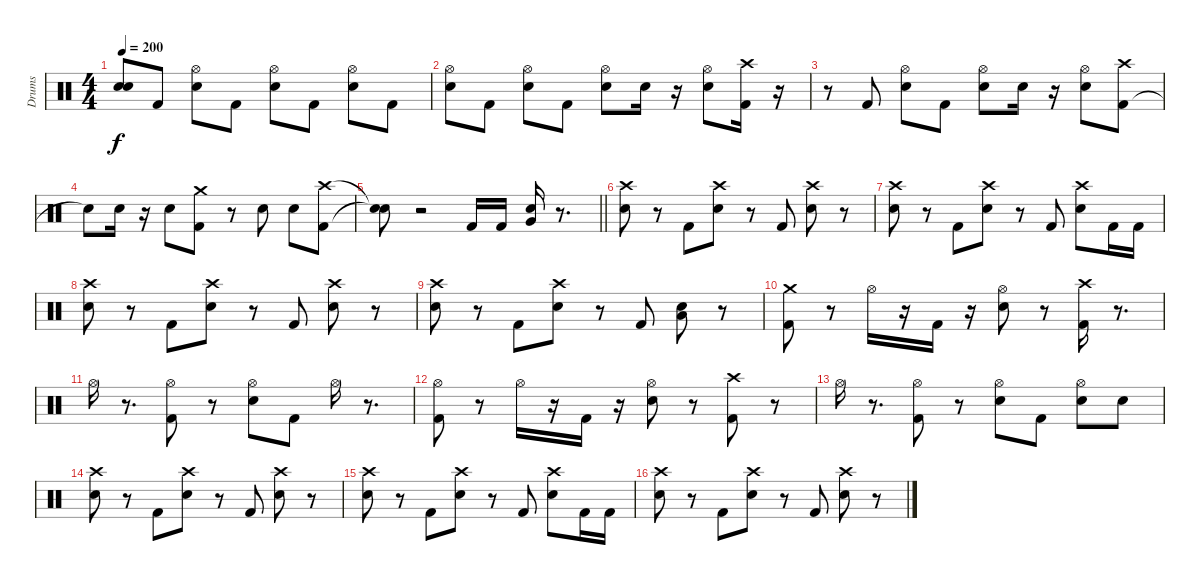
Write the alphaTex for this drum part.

\track ("Drums" "Drums") {instrument percussion}
\staff {score}
\articulation defaults
\ts (4 4)
\tempo 200
\clef neutral
\ks c
("Snare (hit)"{t} "Snare (hit)"{t}).8{dy f} "Kick (hit) 2".8 ("Snare (hit) 2" "Hi-Hat (open)").8 "Kick (hit) 2".8 ("Snare (hit) 2" "Hi-Hat (open)").8 "Kick (hit) 2".8 ("Snare (hit) 2" "Hi-Hat (open)").8 "Kick (hit) 2".8 |
("Snare (hit) 2" "Hi-Hat (open)").8 "Kick (hit) 2".8 ("Snare (hit) 2" "Hi-Hat (open)").8 "Kick (hit) 2".8 ("Snare (hit) 2" "Hi-Hat (open)").8 "Snare (hit) 2".16 r.16 ("Snare (hit) 2" "Hi-Hat (open)").8 ("Kick (hit) 2" "Crash high (hit)").16 r.16 |
r.8 "Kick (hit) 2".8 ("Snare (hit) 2" "Hi-Hat (open)").8 "Kick (hit) 2".8 ("Snare (hit) 2" "Hi-Hat (open)").8 "Snare (hit) 2".16 r.16 ("Snare (hit) 2" "Hi-Hat (open)").8 ("Kick (hit) 2" "Crash high (hit)").8 |
"Snare (hit)"{t}.8 "Snare (hit) 2".16 r.16 "Snare (hit) 2".8 ("Kick (hit) 2" "Crash medium (hit)").8 r.8 "Snare (hit) 2".8 "Snare (hit) 2".8 ("Kick (hit) 2" "Crash high (hit)").8 |
\barLineRight lightlight
("Snare (hit)"{t} "Snare (hit)"{t}).8 r.2 "Kick (hit) 2".16 "Kick (hit) 2".16 ("Snare (hit) 2" "Very Low Tom (hit)").16 r.8{d} |
\section ("" " ")
("Snare (hit) 2" "Crash high (hit)").8 r.8 "Kick (hit) 2".8 ("Snare (hit) 2" "Crash high (hit)").8 r.8 "Kick (hit) 2".8 ("Snare (hit) 2" "Crash high (hit)").8 r.8 |
("Snare (hit) 2" "Crash high (hit)").8 r.8 "Kick (hit) 2".8 ("Snare (hit) 2" "Crash high (hit)").8 r.8 "Kick (hit) 2".8 ("Snare (hit) 2" "Crash high (hit)").8 "Kick (hit) 2".16 "Kick (hit) 2".16 |
("Snare (hit) 2" "Crash high (hit)").8 r.8 "Kick (hit) 2".8 ("Snare (hit) 2" "Crash high (hit)").8 r.8 "Kick (hit) 2".8 ("Snare (hit) 2" "Crash high (hit)").8 r.8 |
("Snare (hit) 2" "Crash high (hit)").8 r.8 "Kick (hit) 2".8 ("Snare (hit) 2" "Crash high (hit)").8 r.8 "Kick (hit) 2".8 ("Snare (hit) 2" "Low Tom (hit)").8 r.8 |
("Kick (hit) 2" "Crash medium (hit)").8 r.8 "Hi-Hat (open)".16 r.16 "Kick (hit) 2".16 r.16 ("Snare (hit) 2" "Hi-Hat (open)").8 r.8 ("Kick (hit) 2" "Crash high (hit)").16 r.8{d} |
"Hi-Hat (open)".16 r.8{d} ("Kick (hit) 2" "Hi-Hat (open)").8 r.8 ("Snare (hit) 2" "Hi-Hat (open)").8 "Kick (hit) 2".8 "Hi-Hat (open)".16 r.8{d} |
("Kick (hit) 2" "Hi-Hat (open)").8 r.8 "Hi-Hat (open)".16 r.16 "Kick (hit) 2".16 r.16 ("Snare (hit) 2" "Hi-Hat (open)").8 r.8 ("Kick (hit) 2" "Crash high (hit)").8 r.8 |
"Hi-Hat (open)".16 r.8{d} ("Kick (hit) 2" "Hi-Hat (open)").8 r.8 ("Snare (hit) 2" "Hi-Hat (open)").8 "Kick (hit) 2".8 ("Snare (hit) 2" "Hi-Hat (open)").8 "Snare (hit) 2".8 |
("Snare (hit) 2" "Crash high (hit)").8 r.8 "Kick (hit) 2".8 ("Snare (hit) 2" "Crash high (hit)").8 r.8 "Kick (hit) 2".8 ("Snare (hit) 2" "Crash high (hit)").8 r.8 |
("Snare (hit) 2" "Crash high (hit)").8 r.8 "Kick (hit) 2".8 ("Snare (hit) 2" "Crash high (hit)").8 r.8 "Kick (hit) 2".8 ("Snare (hit) 2" "Crash high (hit)").8 "Kick (hit) 2".16 "Kick (hit) 2".16 |
("Snare (hit) 2" "Crash high (hit)").8 r.8 "Kick (hit) 2".8 ("Snare (hit) 2" "Crash high (hit)").8 r.8 "Kick (hit) 2".8 ("Snare (hit) 2" "Crash high (hit)").8 r.8
